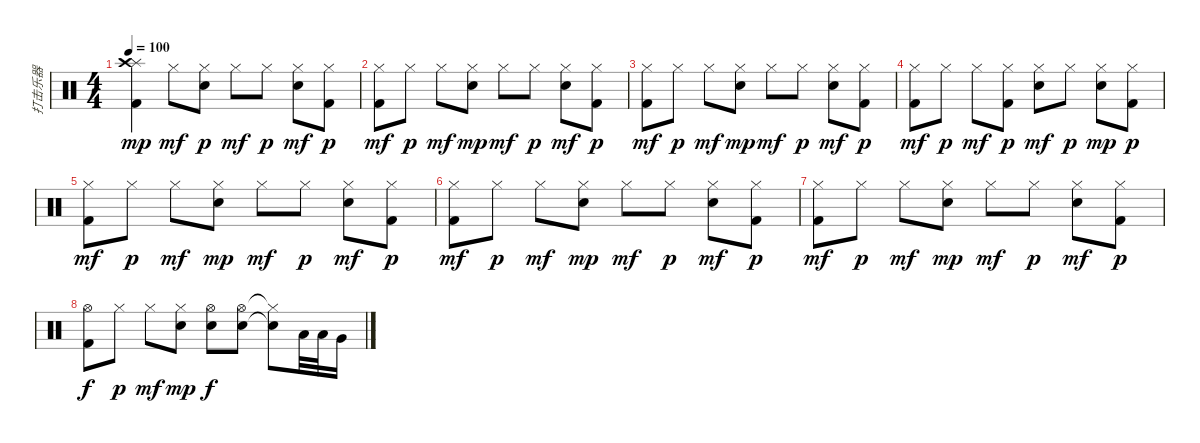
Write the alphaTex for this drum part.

\track ("打击乐器" "打击乐器") {instrument percussion}
\staff {score}
\articulation defaults
\ts (4 4)
\tempo 100
\clef neutral
\ks c
("Splash (hit)" "Crash high (hit)" "Kick (hit) 2").4{dy mp} "Hi-Hat (closed)".8{dy mf} ("Hi-Hat (closed)" "Electric Snare (hit)").8{dy p} "Hi-Hat (closed)".8{dy mf} "Hi-Hat (closed)".8{dy p} ("Hi-Hat (closed)" "Electric Snare (hit)").8{dy mf} ("Hi-Hat (closed)" "Kick (hit) 2").8{dy p} |
("Hi-Hat (closed)" "Kick (hit) 2").8{dy mf} "Hi-Hat (closed)".8{dy p} "Hi-Hat (closed)".8{dy mf} ("Hi-Hat (closed)" "Electric Snare (hit)").8{dy mp} "Hi-Hat (closed)".8{dy mf} "Hi-Hat (closed)".8{dy p} ("Hi-Hat (closed)" "Electric Snare (hit)").8{dy mf} ("Hi-Hat (closed)" "Kick (hit) 2").8{dy p} |
("Hi-Hat (closed)" "Kick (hit) 2").8{dy mf} "Hi-Hat (closed)".8{dy p} "Hi-Hat (closed)".8{dy mf} ("Hi-Hat (closed)" "Electric Snare (hit)").8{dy mp} "Hi-Hat (closed)".8{dy mf} "Hi-Hat (closed)".8{dy p} ("Hi-Hat (closed)" "Electric Snare (hit)").8{dy mf} ("Hi-Hat (closed)" "Kick (hit) 2").8{dy p} |
("Hi-Hat (closed)" "Kick (hit) 2").8{dy mf} "Hi-Hat (closed)".8{dy p} "Hi-Hat (closed)".8{dy mf} ("Hi-Hat (closed)" "Kick (hit) 2").8{dy p} ("Hi-Hat (closed)" "Electric Snare (hit)").8{dy mf} "Hi-Hat (closed)".8{dy p} ("Hi-Hat (closed)" "Electric Snare (hit)").8{dy mp} ("Hi-Hat (closed)" "Kick (hit) 2").8{dy p} |
("Hi-Hat (closed)" "Kick (hit) 2").8{dy mf} "Hi-Hat (closed)".8{dy p} "Hi-Hat (closed)".8{dy mf} ("Hi-Hat (closed)" "Electric Snare (hit)").8{dy mp} "Hi-Hat (closed)".8{dy mf} "Hi-Hat (closed)".8{dy p} ("Hi-Hat (closed)" "Electric Snare (hit)").8{dy mf} ("Hi-Hat (closed)" "Kick (hit) 2").8{dy p} |
("Hi-Hat (closed)" "Kick (hit) 2").8{dy mf} "Hi-Hat (closed)".8{dy p} "Hi-Hat (closed)".8{dy mf} ("Hi-Hat (closed)" "Electric Snare (hit)").8{dy mp} "Hi-Hat (closed)".8{dy mf} "Hi-Hat (closed)".8{dy p} ("Hi-Hat (closed)" "Electric Snare (hit)").8{dy mf} ("Hi-Hat (closed)" "Kick (hit) 2").8{dy p} |
("Hi-Hat (closed)" "Kick (hit) 2").8{dy mf} "Hi-Hat (closed)".8{dy p} "Hi-Hat (closed)".8{dy mf} ("Hi-Hat (closed)" "Electric Snare (hit)").8{dy mp} "Hi-Hat (closed)".8{dy mf} "Hi-Hat (closed)".8{dy p} ("Hi-Hat (closed)" "Electric Snare (hit)").8{dy mf} ("Hi-Hat (closed)" "Kick (hit) 2").8{dy p} |
("Hi-Hat (open)" "Kick (hit) 2").8{dy f} "Hi-Hat (closed)".8{dy p} "Hi-Hat (closed)".8{dy mf} ("Hi-Hat (closed)" "Electric Snare (hit)").8{dy mp} ("Hi-Hat (open)" "Electric Snare (hit)").8{dy f} ("Hi-Hat (open)" "Electric Snare (hit)").8 ("Hi-Hat (closed)"{t} "Snare (hit)"{t}).8 "Low Tom (hit)".32 "Low Tom (hit)".32 "Very Low Tom (hit)".16
